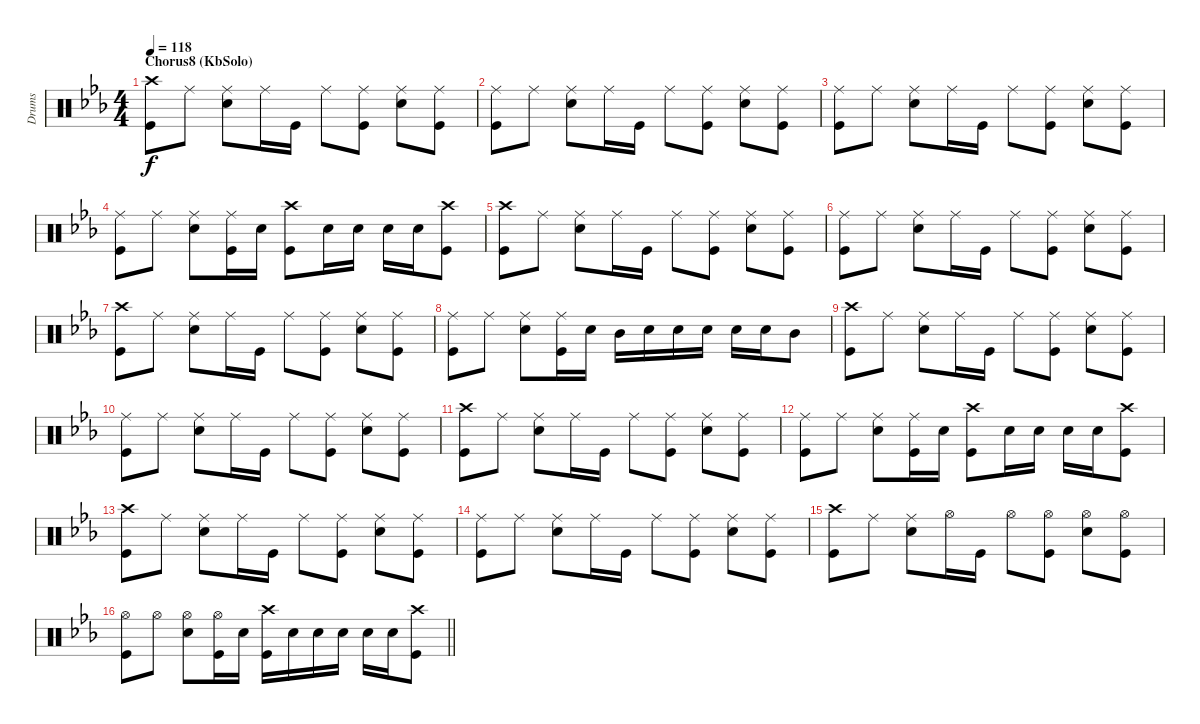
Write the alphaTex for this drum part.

\track ("Drums" "Drums") {instrument percussion}
\staff {score}
\articulation defaults
\ts (4 4)
\section ("" "Chorus8 (KbSolo)")
\tempo 118
\clef neutral
\ks cminor
("Crash high (hit)" "Kick (hit)").8{dy f} "Ride (middle)".8 ("Ride (middle)" "Snare (hit) 2").8 "Ride (middle)".16 "Kick (hit)".16 "Ride (middle)".8 ("Ride (middle)" "Kick (hit)").8 ("Ride (middle)" "Snare (hit) 2").8 ("Ride (middle)" "Kick (hit)").8 |
("Ride (middle)" "Kick (hit)").8 "Ride (middle)".8 ("Ride (middle)" "Snare (hit) 2").8 "Ride (middle)".16 "Kick (hit)".16 "Ride (middle)".8 ("Ride (middle)" "Kick (hit)").8 ("Ride (middle)" "Snare (hit) 2").8 ("Ride (middle)" "Kick (hit)").8 |
("Ride (middle)" "Kick (hit)").8 "Ride (middle)".8 ("Ride (middle)" "Snare (hit) 2").8 "Ride (middle)".16 "Kick (hit)".16 "Ride (middle)".8 ("Ride (middle)" "Kick (hit)").8 ("Ride (middle)" "Snare (hit) 2").8 ("Ride (middle)" "Kick (hit)").8 |
("Ride (middle)" "Kick (hit)").8 "Ride (middle)".8 ("Ride (middle)" "Snare (hit) 2").8 ("Ride (middle)" "Kick (hit)").16 "Snare (hit) 2".16 ("Crash high (hit)" "Kick (hit)").8 "Snare (hit) 2".16 "Snare (hit) 2".16 "Snare (hit) 2".16 "Snare (hit) 2".16 ("Crash high (hit)" "Kick (hit)").8 |
("Crash high (hit)" "Kick (hit)").8 "Ride (middle)".8 ("Ride (middle)" "Snare (hit) 2").8 "Ride (middle)".16 "Kick (hit)".16 "Ride (middle)".8 ("Ride (middle)" "Kick (hit)").8 ("Ride (middle)" "Snare (hit) 2").8 ("Ride (middle)" "Kick (hit)").8 |
("Ride (middle)" "Kick (hit)").8 "Ride (middle)".8 ("Ride (middle)" "Snare (hit) 2").8 "Ride (middle)".16 "Kick (hit)".16 "Ride (middle)".8 ("Ride (middle)" "Kick (hit)").8 ("Ride (middle)" "Snare (hit) 2").8 ("Ride (middle)" "Kick (hit)").8 |
("Crash high (hit)" "Kick (hit)").8 "Ride (middle)".8 ("Ride (middle)" "Snare (hit) 2").8 "Ride (middle)".16 "Kick (hit)".16 "Ride (middle)".8 ("Ride (middle)" "Kick (hit)").8 ("Ride (middle)" "Snare (hit) 2").8 ("Ride (middle)" "Kick (hit)").8 |
("Ride (middle)" "Kick (hit)").8 "Ride (middle)".8 ("Ride (middle)" "Snare (hit) 2").8 ("Ride (middle)" "Kick (hit)").16 "Snare (hit) 2".16 "Mid Tom (hit)".16 "Snare (hit) 2".16 "Snare (hit) 2".16 "Snare (hit) 2".16 "Snare (hit) 2".16 "Snare (hit) 2".16 "Mid Tom (hit)".8 |
("Crash high (hit)" "Kick (hit)").8 "Ride (middle)".8 ("Ride (middle)" "Snare (hit) 2").8 "Ride (middle)".16 "Kick (hit)".16 "Ride (middle)".8 ("Ride (middle)" "Kick (hit)").8 ("Ride (middle)" "Snare (hit) 2").8 ("Ride (middle)" "Kick (hit)").8 |
("Ride (middle)" "Kick (hit)").8 "Ride (middle)".8 ("Ride (middle)" "Snare (hit) 2").8 "Ride (middle)".16 "Kick (hit)".16 "Ride (middle)".8 ("Ride (middle)" "Kick (hit)").8 ("Ride (middle)" "Snare (hit) 2").8 ("Ride (middle)" "Kick (hit)").8 |
("Crash high (hit)" "Kick (hit)").8 "Ride (middle)".8 ("Ride (middle)" "Snare (hit) 2").8 "Ride (middle)".16 "Kick (hit)".16 "Ride (middle)".8 ("Ride (middle)" "Kick (hit)").8 ("Ride (middle)" "Snare (hit) 2").8 ("Ride (middle)" "Kick (hit)").8 |
("Ride (middle)" "Kick (hit)").8 "Ride (middle)".8 ("Ride (middle)" "Snare (hit) 2").8 ("Ride (middle)" "Kick (hit)").16 "Snare (hit) 2".16 ("Crash high (hit)" "Kick (hit)").8 "Snare (hit) 2".16 "Snare (hit) 2".16 "Snare (hit) 2".16 "Snare (hit) 2".16 ("Crash high (hit)" "Kick (hit)").8 |
("Crash high (hit)" "Kick (hit)").8 "Ride (middle)".8 ("Ride (middle)" "Snare (hit) 2").8 "Ride (middle)".16 "Kick (hit)".16 "Ride (middle)".8 ("Ride (middle)" "Kick (hit)").8 ("Ride (middle)" "Snare (hit) 2").8 ("Ride (middle)" "Kick (hit)").8 |
("Ride (middle)" "Kick (hit)").8 "Ride (middle)".8 ("Ride (middle)" "Snare (hit) 2").8 "Ride (middle)".16 "Kick (hit)".16 "Ride (middle)".8 ("Ride (middle)" "Kick (hit)").8 ("Ride (middle)" "Snare (hit) 2").8 ("Ride (middle)" "Kick (hit)").8 |
("Crash high (hit)" "Kick (hit)").8 "Ride (middle)".8 ("Ride (middle)" "Snare (hit) 2").8 "Hi-Hat (open)".16 "Kick (hit)".16 "Hi-Hat (open)".8 ("Hi-Hat (open)" "Kick (hit)").8 ("Hi-Hat (open)" "Snare (hit) 2").8 ("Hi-Hat (open)" "Kick (hit)").8 |
\barLineRight lightlight
("Hi-Hat (open)" "Kick (hit)").8 "Hi-Hat (open)".8 ("Hi-Hat (open)" "Snare (hit) 2").8 ("Hi-Hat (open)" "Kick (hit)").16 "Snare (hit) 2".16 ("Crash high (hit)" "Kick (hit)").16 "Snare (hit) 2".16 "Snare (hit) 2".16 "Snare (hit) 2".16 "Snare (hit) 2".16 "Snare (hit) 2".16 ("Kick (hit)" "Crash high (hit)").8
